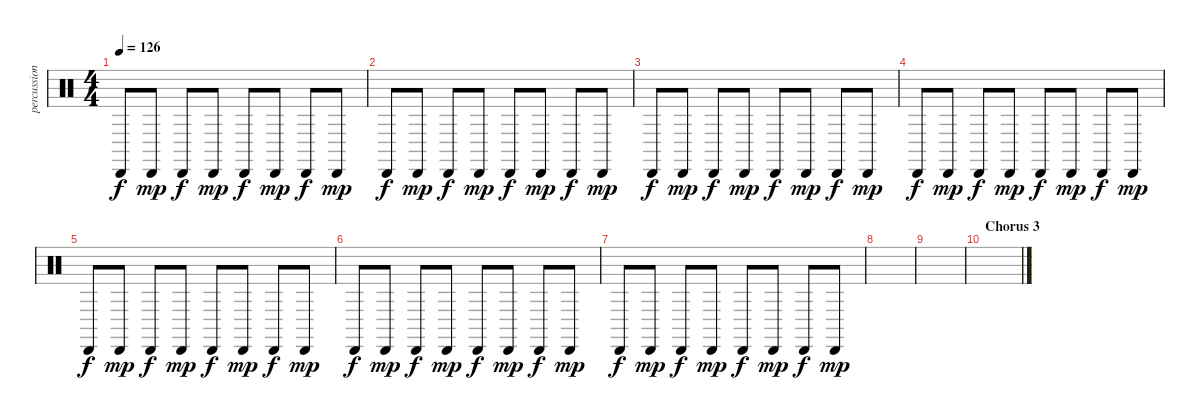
\track ("percussion" "percussion") {instrument percussion}
\staff {score}
\articulation defaults
\ts (4 4)
\tempo 126
\clef neutral
\ks c "Cabasa (hit)".8{dy f} "Cabasa (hit)".8{dy mp} "Cabasa (hit)".8{dy f} "Cabasa (hit)".8{dy mp} "Cabasa (hit)".8{dy f} "Cabasa (hit)".8{dy mp} "Cabasa (hit)".8{dy f} "Cabasa (hit)".8{dy mp}
|
"Cabasa (hit)".8{dy f} "Cabasa (hit)".8{dy mp} "Cabasa (hit)".8{dy f} "Cabasa (hit)".8{dy mp} "Cabasa (hit)".8{dy f} "Cabasa (hit)".8{dy mp} "Cabasa (hit)".8{dy f} "Cabasa (hit)".8{dy mp} |
"Cabasa (hit)".8{dy f} "Cabasa (hit)".8{dy mp} "Cabasa (hit)".8{dy f} "Cabasa (hit)".8{dy mp} "Cabasa (hit)".8{dy f} "Cabasa (hit)".8{dy mp} "Cabasa (hit)".8{dy f} "Cabasa (hit)".8{dy mp} |
"Cabasa (hit)".8{dy f} "Cabasa (hit)".8{dy mp} "Cabasa (hit)".8{dy f} "Cabasa (hit)".8{dy mp} "Cabasa (hit)".8{dy f} "Cabasa (hit)".8{dy mp} "Cabasa (hit)".8{dy f} "Cabasa (hit)".8{dy mp} |
"Cabasa (hit)".8{dy f} "Cabasa (hit)".8{dy mp} "Cabasa (hit)".8{dy f} "Cabasa (hit)".8{dy mp} "Cabasa (hit)".8{dy f} "Cabasa (hit)".8{dy mp} "Cabasa (hit)".8{dy f} "Cabasa (hit)".8{dy mp} |
"Cabasa (hit)".8{dy f} "Cabasa (hit)".8{dy mp} "Cabasa (hit)".8{dy f} "Cabasa (hit)".8{dy mp} "Cabasa (hit)".8{dy f} "Cabasa (hit)".8{dy mp} "Cabasa (hit)".8{dy f} "Cabasa (hit)".8{dy mp} |
"Cabasa (hit)".8{dy f} "Cabasa (hit)".8{dy mp} "Cabasa (hit)".8{dy f} "Cabasa (hit)".8{dy mp} "Cabasa (hit)".8{dy f} "Cabasa (hit)".8{dy mp} "Cabasa (hit)".8{dy f} "Cabasa (hit)".8{dy mp} |
|
|
\section ("" "Chorus 3")
